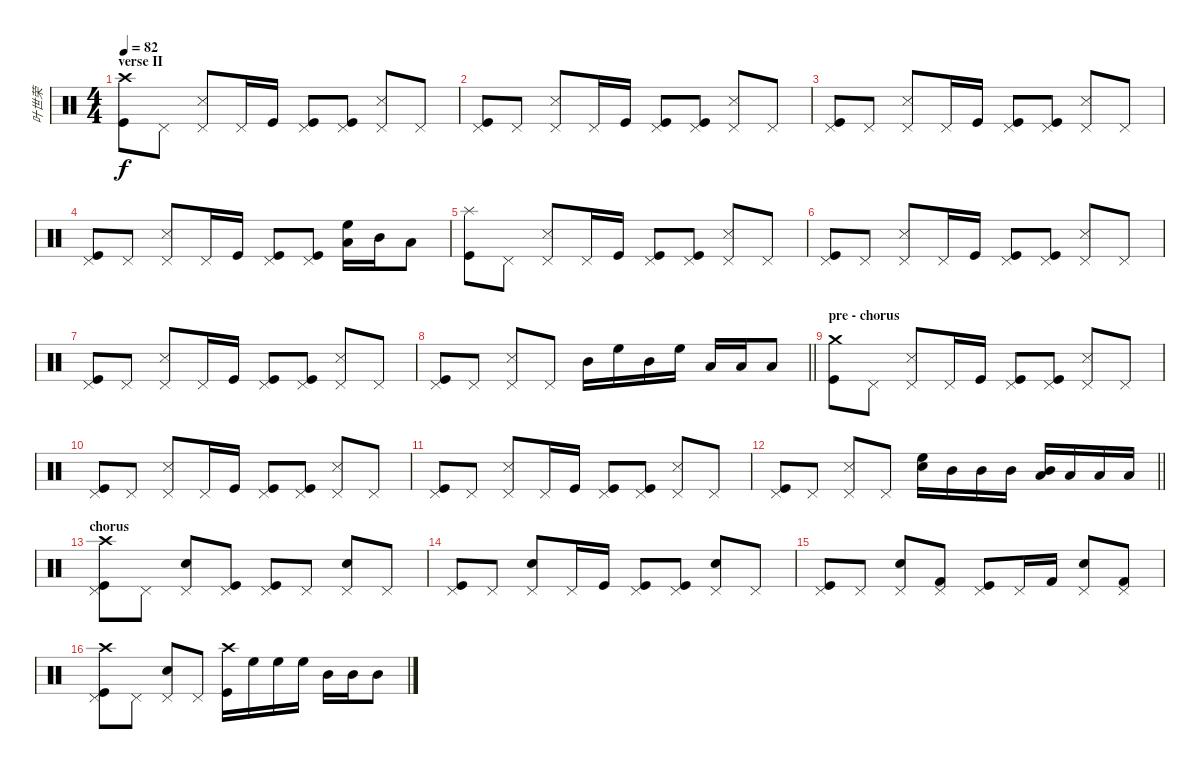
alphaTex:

\track ("叶世荣" "叶世荣") {instrument percussion}
\staff {score}
\articulation defaults
\ts (4 4)
\section ("" "verse II")
\tempo 82
\clef neutral
\ks c
("Crash high (hit)" "Kick (hit)").8{dy f} "Pedal Hi-Hat (hit)".8 ("Pedal Hi-Hat (hit)" "Snare (side stick) 3").8 "Pedal Hi-Hat (hit)".16 "Kick (hit)".16 ("Pedal Hi-Hat (hit)" "Kick (hit)").8 ("Pedal Hi-Hat (hit)" "Kick (hit)").8 ("Pedal Hi-Hat (hit)" "Snare (side stick) 3").8 "Pedal Hi-Hat (hit)".8 |
("Pedal Hi-Hat (hit)" "Kick (hit)").8 "Pedal Hi-Hat (hit)".8 ("Pedal Hi-Hat (hit)" "Snare (side stick) 3").8 "Pedal Hi-Hat (hit)".16 "Kick (hit)".16 ("Pedal Hi-Hat (hit)" "Kick (hit)").8 ("Pedal Hi-Hat (hit)" "Kick (hit)").8 ("Pedal Hi-Hat (hit)" "Snare (side stick) 3").8 "Pedal Hi-Hat (hit)".8 |
("Pedal Hi-Hat (hit)" "Kick (hit)").8 "Pedal Hi-Hat (hit)".8 ("Pedal Hi-Hat (hit)" "Snare (side stick) 3").8 "Pedal Hi-Hat (hit)".16 "Kick (hit)".16 ("Pedal Hi-Hat (hit)" "Kick (hit)").8 ("Pedal Hi-Hat (hit)" "Kick (hit)").8 ("Pedal Hi-Hat (hit)" "Snare (side stick) 3").8 "Pedal Hi-Hat (hit)".8 |
("Pedal Hi-Hat (hit)" "Kick (hit)").8 "Pedal Hi-Hat (hit)".8 ("Pedal Hi-Hat (hit)" "Snare (side stick) 3").8 "Pedal Hi-Hat (hit)".16 "Kick (hit)".16 ("Pedal Hi-Hat (hit)" "Kick (hit)").8 ("Pedal Hi-Hat (hit)" "Kick (hit)").8 ("High Floor Tom (hit)" "Low Tom (hit)").16 "Mid Tom (hit)".16 "Low Tom (hit)".8 |
("Splash (hit)" "Kick (hit)").8 "Pedal Hi-Hat (hit)".8 ("Pedal Hi-Hat (hit)" "Snare (side stick) 3").8 "Pedal Hi-Hat (hit)".16 "Kick (hit)".16 ("Pedal Hi-Hat (hit)" "Kick (hit)").8 ("Pedal Hi-Hat (hit)" "Kick (hit)").8 ("Pedal Hi-Hat (hit)" "Snare (side stick) 3").8 "Pedal Hi-Hat (hit)".8 |
("Pedal Hi-Hat (hit)" "Kick (hit)").8 "Pedal Hi-Hat (hit)".8 ("Pedal Hi-Hat (hit)" "Snare (side stick) 3").8 "Pedal Hi-Hat (hit)".16 "Kick (hit)".16 ("Pedal Hi-Hat (hit)" "Kick (hit)").8 ("Pedal Hi-Hat (hit)" "Kick (hit)").8 ("Pedal Hi-Hat (hit)" "Snare (side stick) 3").8 "Pedal Hi-Hat (hit)".8 |
("Pedal Hi-Hat (hit)" "Kick (hit)").8 "Pedal Hi-Hat (hit)".8 ("Pedal Hi-Hat (hit)" "Snare (side stick) 3").8 "Pedal Hi-Hat (hit)".16 "Kick (hit)".16 ("Pedal Hi-Hat (hit)" "Kick (hit)").8 ("Pedal Hi-Hat (hit)" "Kick (hit)").8 ("Pedal Hi-Hat (hit)" "Snare (side stick) 3").8 "Pedal Hi-Hat (hit)".8 |
\barLineRight lightlight
("Pedal Hi-Hat (hit)" "Kick (hit)").8 "Pedal Hi-Hat (hit)".8 ("Pedal Hi-Hat (hit)" "Snare (side stick) 3").8 "Pedal Hi-Hat (hit)".8 "Mid Tom (hit)".16 "High Floor Tom (hit)".16 "Mid Tom (hit)".16 "High Floor Tom (hit)".16 "Low Tom (hit)".16 "Low Tom (hit)".16 "Low Tom (hit)".8 |
\section ("" "pre - chorus")
("Crash medium (hit)" "Kick (hit)").8 "Pedal Hi-Hat (hit)".8 ("Pedal Hi-Hat (hit)" "Snare (side stick) 3").8 "Pedal Hi-Hat (hit)".16 "Kick (hit)".16 ("Pedal Hi-Hat (hit)" "Kick (hit)").8 ("Pedal Hi-Hat (hit)" "Kick (hit)").8 ("Pedal Hi-Hat (hit)" "Snare (side stick) 3").8 "Pedal Hi-Hat (hit)".8 |
("Pedal Hi-Hat (hit)" "Kick (hit)").8 "Pedal Hi-Hat (hit)".8 ("Pedal Hi-Hat (hit)" "Snare (side stick) 3").8 "Pedal Hi-Hat (hit)".16 "Kick (hit)".16 ("Pedal Hi-Hat (hit)" "Kick (hit)").8 ("Pedal Hi-Hat (hit)" "Kick (hit)").8 ("Pedal Hi-Hat (hit)" "Snare (side stick) 3").8 "Pedal Hi-Hat (hit)".8 |
("Pedal Hi-Hat (hit)" "Kick (hit)").8 "Pedal Hi-Hat (hit)".8 ("Pedal Hi-Hat (hit)" "Snare (side stick) 3").8 "Pedal Hi-Hat (hit)".16 "Kick (hit)".16 ("Pedal Hi-Hat (hit)" "Kick (hit)").8 ("Pedal Hi-Hat (hit)" "Kick (hit)").8 ("Pedal Hi-Hat (hit)" "Snare (side stick) 3").8 "Pedal Hi-Hat (hit)".8 |
\barLineRight lightlight
("Pedal Hi-Hat (hit)" "Kick (hit)").8 "Pedal Hi-Hat (hit)".8 ("Pedal Hi-Hat (hit)" "Snare (side stick) 3").8 "Pedal Hi-Hat (hit)".8 ("High Floor Tom (hit)" "Electric Snare (hit)").16 "Mid Tom (hit)".16 "Mid Tom (hit)".16 "Mid Tom (hit)".16 ("Low Tom (hit)" "Mid Tom (hit)").16 "Low Tom (hit)".16 "Low Tom (hit)".16 "Low Tom (hit)".16 |
\section ("" "chorus")
("Crash high (hit)" "Pedal Hi-Hat (hit)" "Kick (hit)").8 "Pedal Hi-Hat (hit)".8 ("Electric Snare (hit)" "Pedal Hi-Hat (hit)").8 ("Kick (hit)" "Pedal Hi-Hat (hit)").8 ("Pedal Hi-Hat (hit)" "Kick (hit)").8 "Pedal Hi-Hat (hit)".8 ("Electric Snare (hit)" "Pedal Hi-Hat (hit)").8 "Pedal Hi-Hat (hit)".8 |
("Pedal Hi-Hat (hit)" "Kick (hit)").8 "Pedal Hi-Hat (hit)".8 ("Electric Snare (hit)" "Pedal Hi-Hat (hit)").8 "Pedal Hi-Hat (hit)".16 "Kick (hit)".16 ("Pedal Hi-Hat (hit)" "Kick (hit)").8 ("Pedal Hi-Hat (hit)" "Kick (hit)").8 ("Electric Snare (hit)" "Pedal Hi-Hat (hit)").8 "Pedal Hi-Hat (hit)".8 |
("Pedal Hi-Hat (hit)" "Kick (hit)").8 "Pedal Hi-Hat (hit)".8 ("Electric Snare (hit)" "Pedal Hi-Hat (hit)").8 ("Kick (hit) 2" "Pedal Hi-Hat (hit)").8 ("Pedal Hi-Hat (hit)" "Kick (hit)").8 "Pedal Hi-Hat (hit)".16 "Kick (hit) 2".16 ("Pedal Hi-Hat (hit)" "Electric Snare (hit)").8 ("Pedal Hi-Hat (hit)" "Kick (hit) 2").8 |
("Crash high (hit)" "Pedal Hi-Hat (hit)" "Kick (hit)").8 "Pedal Hi-Hat (hit)".8 ("Electric Snare (hit)" "Pedal Hi-Hat (hit)").8 "Pedal Hi-Hat (hit)".8 ("Crash high (hit)" "Kick (hit)").16 "High Floor Tom (hit)".16 "High Floor Tom (hit)".16 "High Floor Tom (hit)".16 "Mid Tom (hit)".16 "Mid Tom (hit)".16 "Mid Tom (hit)".8
